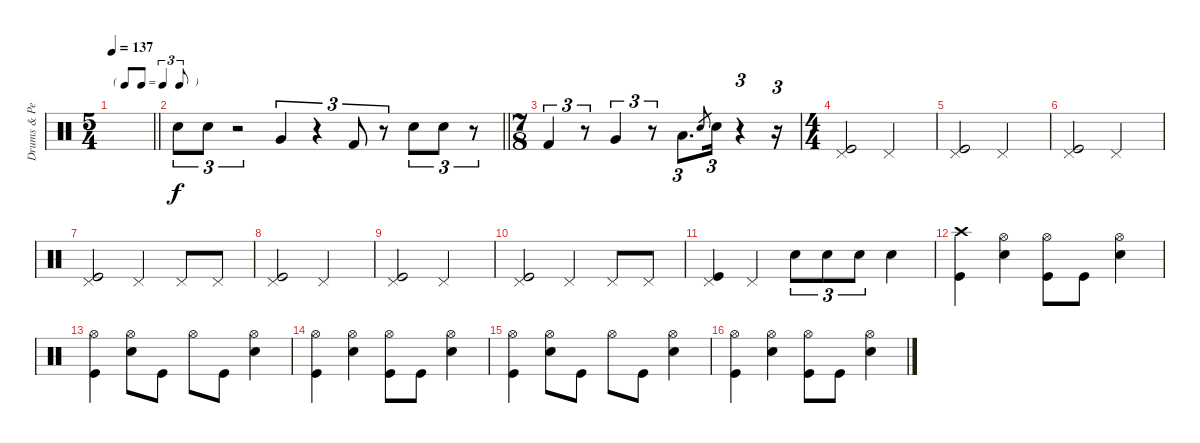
\track ("Drums & Percussion (Matt)" "Drums & Pe") {instrument percussion}
\staff {score}
\articulation defaults
\ts (5 4)
\tf triplet8th
\tempo 137
\clef neutral
\barLineRight lightlight
\ks c
|
\section ("" "")
\barLineRight lightlight "Electric Snare (hit)".8{tu (3 2)} "Electric Snare (hit)".8{tu (3 2)}
r.2{tu (3 2)} "Very Low Tom (hit)".4{tu (3 2)} r.4{tu (3 2)} "Kick (hit) 2".8{tu (3 2)} r.8{tu (3 2)} "Electric Snare (hit)".8{tu (3 2)} "Electric Snare (hit)".8{tu (3 2)} r.8{tu (3 2)} |
\ts (7 8)
\section ("" "")
"Kick (hit) 2".4{tu (3 2)} r.8{tu (3 2)} "Very Low Tom (hit)".4{tu (3 2)} r.8{tu (3 2)} "Low Floor Tom (hit)".8{d tu (3 2)} "Electric Snare (hit)".8{gr} "Electric Snare (hit)".16{tu (3 2)} r.4{tu (3 2)} r.16{tu (3 2)} |
\ts (4 4)
("Pedal Hi-Hat (hit)" "Kick (hit)").2 "Pedal Hi-Hat (hit)".2 |
("Pedal Hi-Hat (hit)" "Kick (hit)").2 "Pedal Hi-Hat (hit)".2 |
("Pedal Hi-Hat (hit)" "Kick (hit)").2 "Pedal Hi-Hat (hit)".2 |
("Pedal Hi-Hat (hit)" "Kick (hit)").2 "Pedal Hi-Hat (hit)".4 "Pedal Hi-Hat (hit)".8 "Pedal Hi-Hat (hit)".8 |
("Pedal Hi-Hat (hit)" "Kick (hit)").2 "Pedal Hi-Hat (hit)".2 |
("Pedal Hi-Hat (hit)" "Kick (hit)").2 "Pedal Hi-Hat (hit)".2 |
("Pedal Hi-Hat (hit)" "Kick (hit)").2 "Pedal Hi-Hat (hit)".4 "Pedal Hi-Hat (hit)".8 "Pedal Hi-Hat (hit)".8 |
("Pedal Hi-Hat (hit)" "Kick (hit)").4 "Pedal Hi-Hat (hit)".4 "Electric Snare (hit)".8{tu (3 2)} "Electric Snare (hit)".8{tu (3 2)} "Electric Snare (hit)".8{tu (3 2)} "Electric Snare (hit)".4 |
("Crash high (hit)" "Kick (hit)").4 ("Hi-Hat (open)" "Electric Snare (hit)").4 ("Hi-Hat (open)" "Kick (hit)").8 "Kick (hit)".8 ("Hi-Hat (open)" "Electric Snare (hit)").4 |
("Hi-Hat (open)" "Kick (hit)").4 ("Hi-Hat (open)" "Electric Snare (hit)").8 "Kick (hit)".8 "Hi-Hat (open)".8 "Kick (hit)".8 ("Hi-Hat (open)" "Electric Snare (hit)").4 |
("Hi-Hat (open)" "Kick (hit)").4 ("Hi-Hat (open)" "Electric Snare (hit)").4 ("Hi-Hat (open)" "Kick (hit)").8 "Kick (hit)".8 ("Hi-Hat (open)" "Electric Snare (hit)").4 |
("Hi-Hat (open)" "Kick (hit)").4 ("Hi-Hat (open)" "Electric Snare (hit)").8 "Kick (hit)".8 "Hi-Hat (open)".8 "Kick (hit)".8 ("Hi-Hat (open)" "Electric Snare (hit)").4 |
("Hi-Hat (open)" "Kick (hit)").4 ("Hi-Hat (open)" "Electric Snare (hit)").4 ("Hi-Hat (open)" "Kick (hit)").8 "Kick (hit)".8 ("Hi-Hat (open)" "Electric Snare (hit)").4
